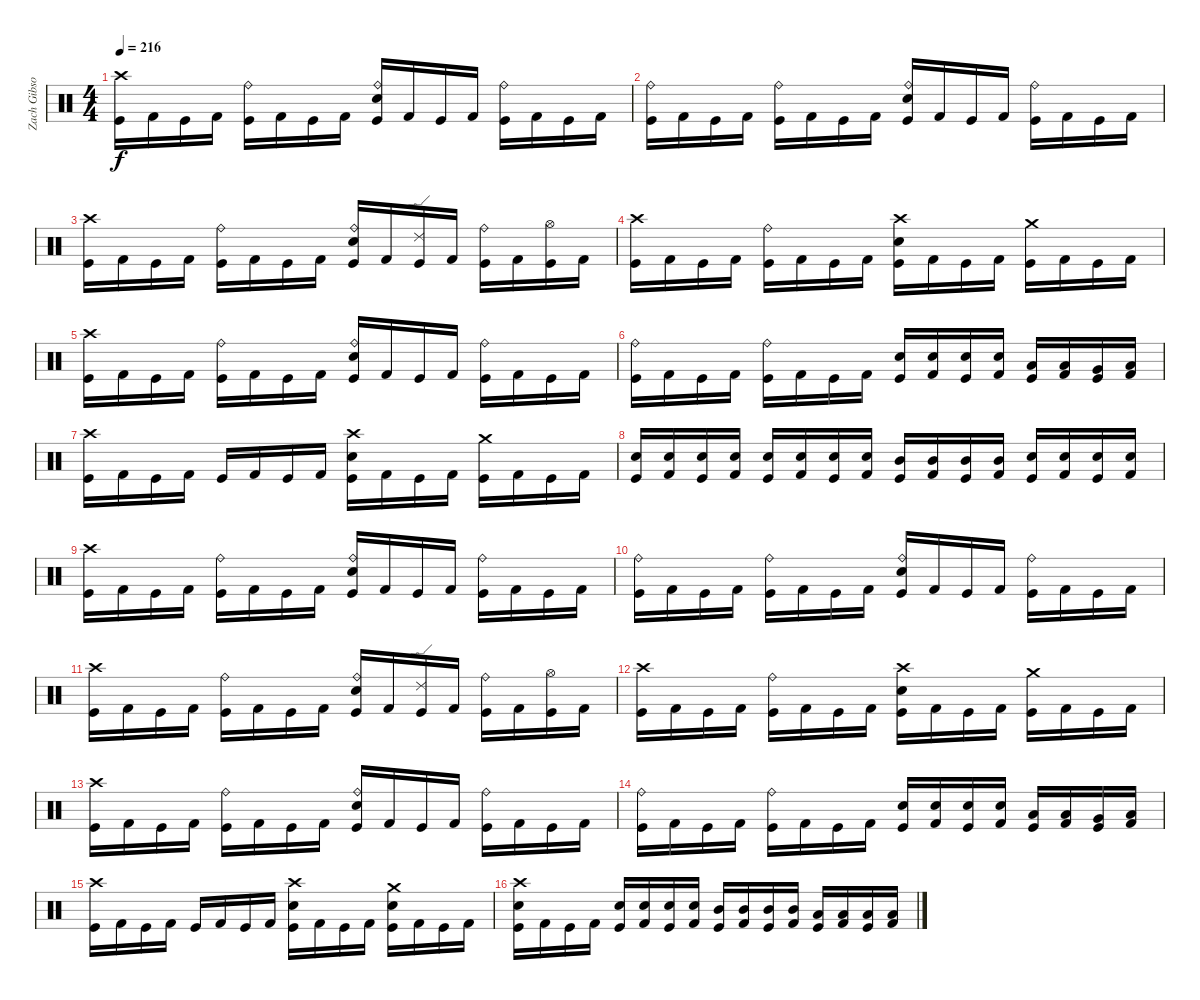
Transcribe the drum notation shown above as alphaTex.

\track ("Zach Gibson (Ex-Drums)" "Zach Gibso") {instrument percussion}
\staff {score}
\articulation defaults
\ts (4 4)
\tempo 216
\clef neutral
\ks c
("Crash high (hit)" "Kick (hit)").16{dy f} "Kick (hit) 2".16 "Kick (hit)".16 "Kick (hit) 2".16 ("Ride (bell)" "Kick (hit)").16 "Kick (hit) 2".16 "Kick (hit)".16 "Kick (hit) 2".16 ("Ride (bell)" "Snare (hit) 2" "Kick (hit)").16 "Kick (hit) 2".16 "Kick (hit)".16 "Kick (hit) 2".16 ("Ride (bell)" "Kick (hit)").16 "Kick (hit) 2".16 "Kick (hit)".16 "Kick (hit) 2".16 |
("Ride (bell)" "Kick (hit)").16 "Kick (hit) 2".16 "Kick (hit)".16 "Kick (hit) 2".16 ("Ride (bell)" "Kick (hit)").16 "Kick (hit) 2".16 "Kick (hit)".16 "Kick (hit) 2".16 ("Ride (bell)" "Snare (hit) 2" "Kick (hit)").16 "Kick (hit) 2".16 "Kick (hit)".16 "Kick (hit) 2".16 ("Ride (bell)" "Kick (hit)").16 "Kick (hit) 2".16 "Kick (hit)".16 "Kick (hit) 2".16 |
("Crash high (hit)" "Kick (hit)").16 "Kick (hit) 2".16 "Kick (hit)".16 "Kick (hit) 2".16 ("Ride (bell)" "Kick (hit)").16 "Kick (hit) 2".16 "Kick (hit)".16 "Kick (hit) 2".16 ("Ride (bell)" "Snare (hit) 2" "Kick (hit)").16 "Kick (hit) 2".16 ("Ride (edge) 2" "Kick (hit)").16 "Kick (hit) 2".16 ("Ride (bell)" "Kick (hit)").16 "Kick (hit) 2".16 ("Hi-Hat (open)" "Kick (hit)").16 "Kick (hit) 2".16 |
("Crash high (hit)" "Kick (hit)").16 "Kick (hit) 2".16 "Kick (hit)".16 "Kick (hit) 2".16 ("Ride (bell)" "Kick (hit)").16 "Kick (hit) 2".16 "Kick (hit)".16 "Kick (hit) 2".16 ("Crash high (hit)" "Snare (hit) 2" "Kick (hit)").16 "Kick (hit) 2".16 "Kick (hit)".16 "Kick (hit) 2".16 ("Crash medium (hit)" "Kick (hit)").16 "Kick (hit) 2".16 "Kick (hit)".16 "Kick (hit) 2".16 |
("Crash high (hit)" "Kick (hit)").16 "Kick (hit) 2".16 "Kick (hit)".16 "Kick (hit) 2".16 ("Ride (bell)" "Kick (hit)").16 "Kick (hit) 2".16 "Kick (hit)".16 "Kick (hit) 2".16 ("Ride (bell)" "Snare (hit) 2" "Kick (hit)").16 "Kick (hit) 2".16 "Kick (hit)".16 "Kick (hit) 2".16 ("Ride (bell)" "Kick (hit)").16 "Kick (hit) 2".16 "Kick (hit)".16 "Kick (hit) 2".16 |
("Ride (bell)" "Kick (hit)").16 "Kick (hit) 2".16 "Kick (hit)".16 "Kick (hit) 2".16 ("Ride (bell)" "Kick (hit)").16 "Kick (hit) 2".16 "Kick (hit)".16 "Kick (hit) 2".16 ("Snare (hit) 2" "Kick (hit)").16 ("Snare (hit) 2" "Kick (hit) 2").16 ("Snare (hit) 2" "Kick (hit)").16 ("Snare (hit) 2" "Kick (hit) 2").16 ("Low Tom (hit)" "Kick (hit)").16 ("Low Tom (hit)" "Kick (hit) 2").16 ("Very Low Tom (hit)" "Kick (hit)").16 ("Low Floor Tom (hit)" "Kick (hit) 2").16 |
("Crash high (hit)" "Kick (hit)").16 "Kick (hit) 2".16 "Kick (hit)".16 "Kick (hit) 2".16 "Kick (hit)".16 "Kick (hit) 2".16 "Kick (hit)".16 "Kick (hit) 2".16 ("Crash high (hit)" "Snare (hit) 2" "Kick (hit)").16 "Kick (hit) 2".16 "Kick (hit)".16 "Kick (hit) 2".16 ("Crash medium (hit)" "Kick (hit)").16 "Kick (hit) 2".16 "Kick (hit)".16 "Kick (hit) 2".16 |
("Snare (hit) 2" "Kick (hit)").16 ("Snare (hit) 2" "Kick (hit) 2").16 ("Snare (hit) 2" "Kick (hit)").16 ("Snare (hit) 2" "Kick (hit) 2").16 ("Snare (hit) 2" "Kick (hit)").16 ("Snare (hit) 2" "Kick (hit) 2").16 ("Snare (hit) 2" "Kick (hit)").16 ("Snare (hit) 2" "Kick (hit) 2").16 ("Mid Tom (hit)" "Kick (hit)").16 ("Mid Tom (hit)" "Kick (hit) 2").16 ("Mid Tom (hit)" "Kick (hit)").16 ("Mid Tom (hit)" "Kick (hit) 2").16 ("Snare (hit) 2" "Kick (hit)").16 ("Snare (hit) 2" "Kick (hit) 2").16 ("Snare (hit) 2" "Kick (hit)").16 ("Snare (hit) 2" "Kick (hit) 2").16 |
("Crash high (hit)" "Kick (hit)").16 "Kick (hit) 2".16 "Kick (hit)".16 "Kick (hit) 2".16 ("Ride (bell)" "Kick (hit)").16 "Kick (hit) 2".16 "Kick (hit)".16 "Kick (hit) 2".16 ("Ride (bell)" "Snare (hit) 2" "Kick (hit)").16 "Kick (hit) 2".16 "Kick (hit)".16 "Kick (hit) 2".16 ("Ride (bell)" "Kick (hit)").16 "Kick (hit) 2".16 "Kick (hit)".16 "Kick (hit) 2".16 |
("Ride (bell)" "Kick (hit)").16 "Kick (hit) 2".16 "Kick (hit)".16 "Kick (hit) 2".16 ("Ride (bell)" "Kick (hit)").16 "Kick (hit) 2".16 "Kick (hit)".16 "Kick (hit) 2".16 ("Ride (bell)" "Snare (hit) 2" "Kick (hit)").16 "Kick (hit) 2".16 "Kick (hit)".16 "Kick (hit) 2".16 ("Ride (bell)" "Kick (hit)").16 "Kick (hit) 2".16 "Kick (hit)".16 "Kick (hit) 2".16 |
("Crash high (hit)" "Kick (hit)").16 "Kick (hit) 2".16 "Kick (hit)".16 "Kick (hit) 2".16 ("Ride (bell)" "Kick (hit)").16 "Kick (hit) 2".16 "Kick (hit)".16 "Kick (hit) 2".16 ("Ride (bell)" "Snare (hit) 2" "Kick (hit)").16 "Kick (hit) 2".16 ("Ride (edge) 2" "Kick (hit)").16 "Kick (hit) 2".16 ("Ride (bell)" "Kick (hit)").16 "Kick (hit) 2".16 ("Hi-Hat (open)" "Kick (hit)").16 "Kick (hit) 2".16 |
("Crash high (hit)" "Kick (hit)").16 "Kick (hit) 2".16 "Kick (hit)".16 "Kick (hit) 2".16 ("Ride (bell)" "Kick (hit)").16 "Kick (hit) 2".16 "Kick (hit)".16 "Kick (hit) 2".16 ("Crash high (hit)" "Snare (hit) 2" "Kick (hit)").16 "Kick (hit) 2".16 "Kick (hit)".16 "Kick (hit) 2".16 ("Crash medium (hit)" "Kick (hit)").16 "Kick (hit) 2".16 "Kick (hit)".16 "Kick (hit) 2".16 |
("Crash high (hit)" "Kick (hit)").16 "Kick (hit) 2".16 "Kick (hit)".16 "Kick (hit) 2".16 ("Ride (bell)" "Kick (hit)").16 "Kick (hit) 2".16 "Kick (hit)".16 "Kick (hit) 2".16 ("Ride (bell)" "Snare (hit) 2" "Kick (hit)").16 "Kick (hit) 2".16 "Kick (hit)".16 "Kick (hit) 2".16 ("Ride (bell)" "Kick (hit)").16 "Kick (hit) 2".16 "Kick (hit)".16 "Kick (hit) 2".16 |
("Ride (bell)" "Kick (hit)").16 "Kick (hit) 2".16 "Kick (hit)".16 "Kick (hit) 2".16 ("Ride (bell)" "Kick (hit)").16 "Kick (hit) 2".16 "Kick (hit)".16 "Kick (hit) 2".16 ("Snare (hit) 2" "Kick (hit)").16 ("Snare (hit) 2" "Kick (hit) 2").16 ("Snare (hit) 2" "Kick (hit)").16 ("Snare (hit) 2" "Kick (hit) 2").16 ("Low Tom (hit)" "Kick (hit)").16 ("Low Tom (hit)" "Kick (hit) 2").16 ("Very Low Tom (hit)" "Kick (hit)").16 ("Low Floor Tom (hit)" "Kick (hit) 2").16 |
("Crash high (hit)" "Kick (hit)").16 "Kick (hit) 2".16 "Kick (hit)".16 "Kick (hit) 2".16 "Kick (hit)".16 "Kick (hit) 2".16 "Kick (hit)".16 "Kick (hit) 2".16 ("Crash high (hit)" "Snare (hit) 2" "Kick (hit)").16 "Kick (hit) 2".16 "Kick (hit)".16 "Kick (hit) 2".16 ("Crash medium (hit)" "Snare (hit) 2" "Kick (hit)").16 "Kick (hit) 2".16 "Kick (hit)".16 "Kick (hit) 2".16 |
("Crash high (hit)" "Snare (hit) 2" "Kick (hit)").16 "Kick (hit) 2".16 "Kick (hit)".16 "Kick (hit) 2".16 ("Snare (hit) 2" "Kick (hit)").16 ("Snare (hit) 2" "Kick (hit) 2").16 ("Snare (hit) 2" "Kick (hit)").16 ("Snare (hit) 2" "Kick (hit) 2").16 ("Mid Tom (hit)" "Kick (hit)").16 ("Mid Tom (hit)" "Kick (hit) 2").16 ("Mid Tom (hit)" "Kick (hit)").16 ("Mid Tom (hit)" "Kick (hit) 2").16 ("Low Tom (hit)" "Kick (hit)").16 ("Low Tom (hit)" "Kick (hit) 2").16 ("Low Floor Tom (hit)" "Kick (hit)").16 ("Low Floor Tom (hit)" "Kick (hit) 2").16
